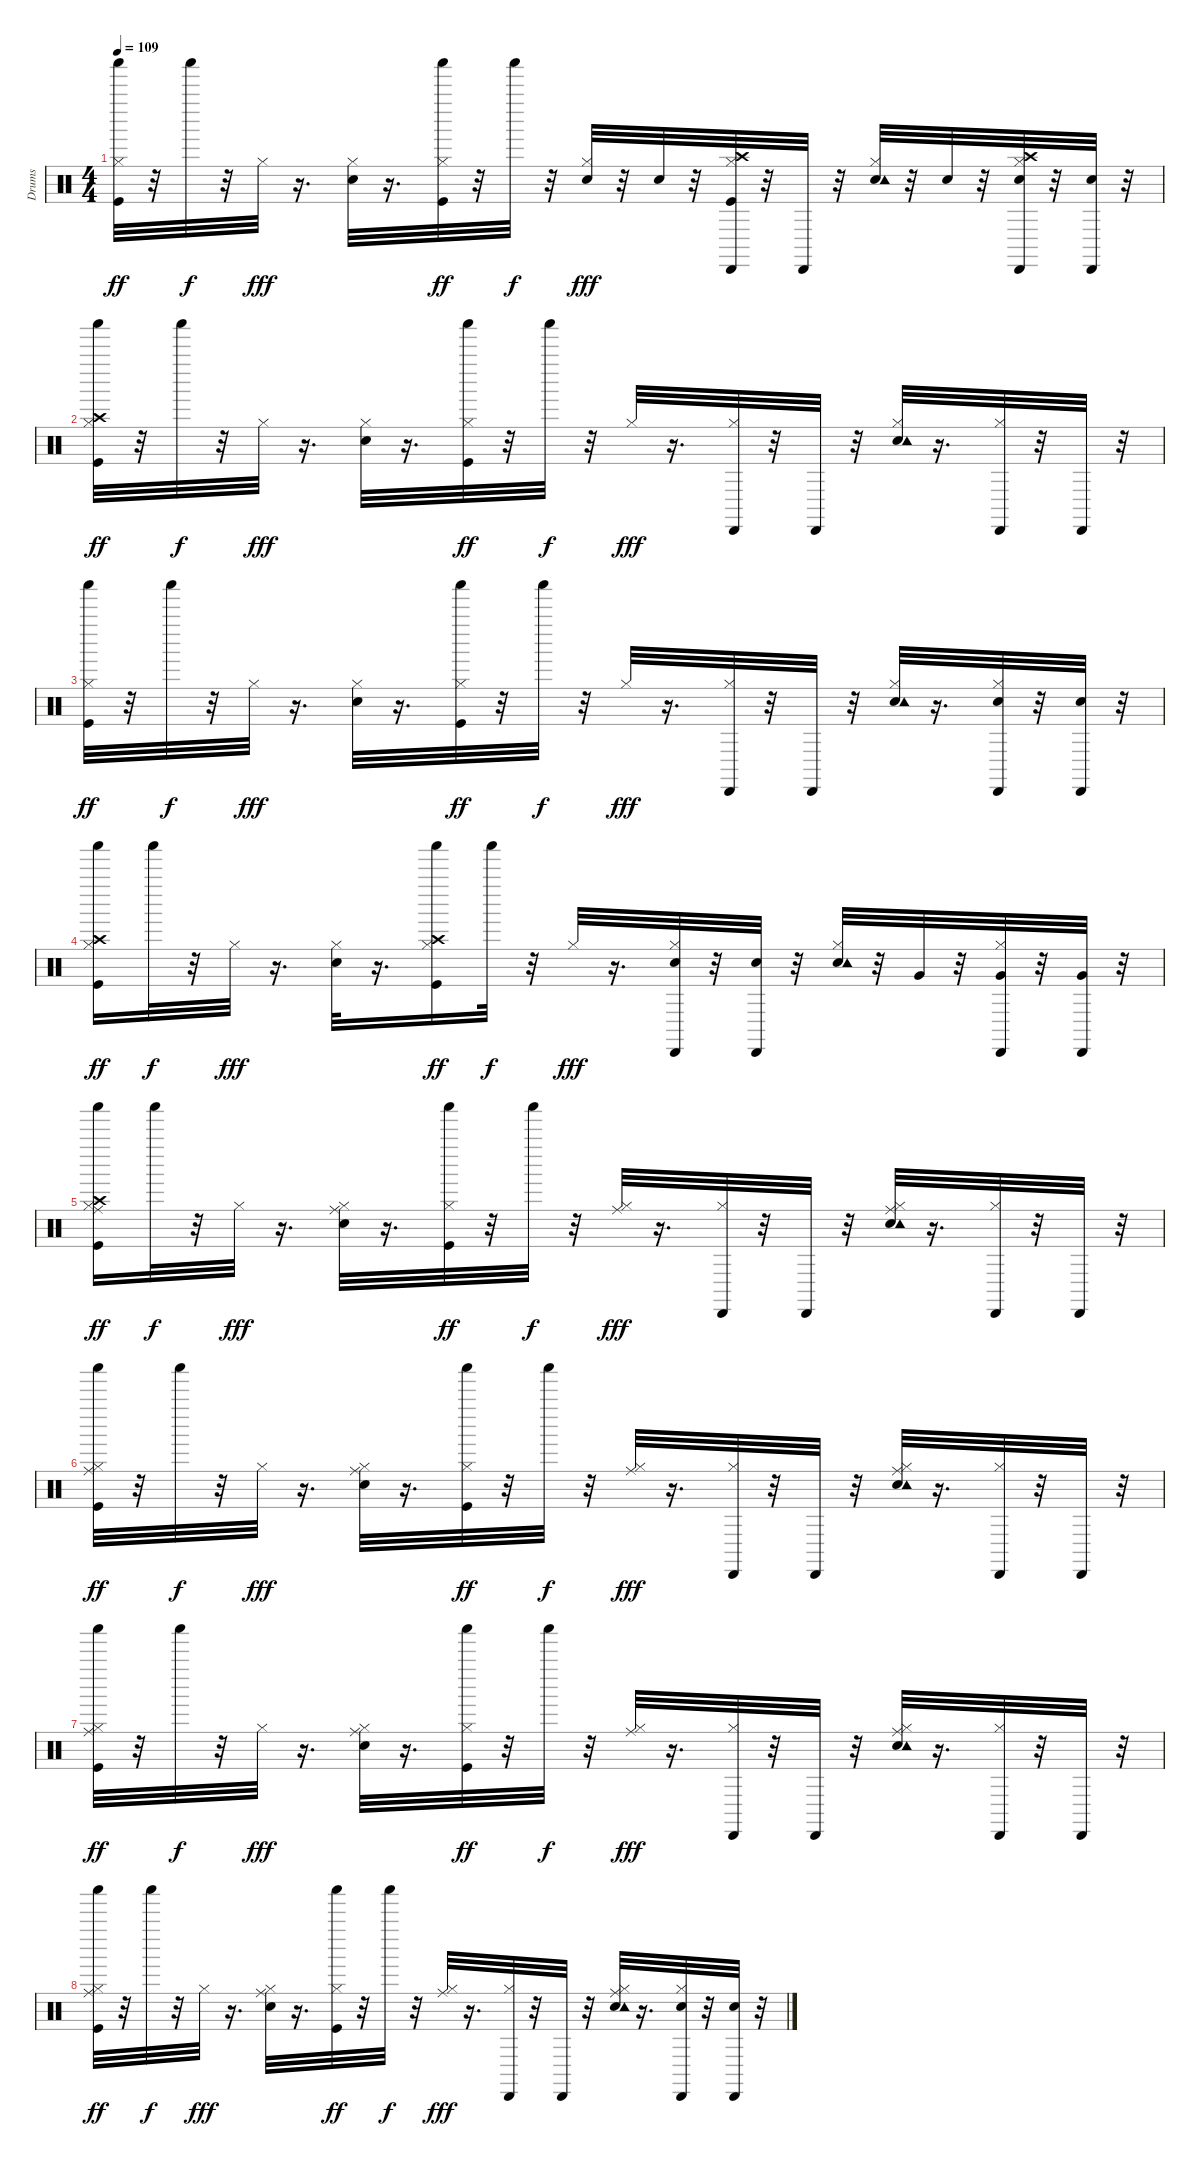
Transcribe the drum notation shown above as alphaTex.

\track ("Drums               " "Drums     ") {instrument percussion}
\staff {score}
\articulation defaults
\ts (4 4)
\tempo 109
\clef neutral
\ks c
("Kick (hit)" "Hi-Hat (closed)" "Shaker (hit)").32{dy ff} r.32 "Shaker (hit)".32{dy f} r.32 "Hi-Hat (closed)".32{dy fff} r.16{d} ("Electric Snare (hit)" "Hi-Hat (closed)").32 r.16{d} ("Kick (hit)" "Hi-Hat (closed)" "Shaker (hit)").32{dy ff} r.32 "Shaker (hit)".32{dy f} r.32 ("Electric Snare (hit)" "Hi-Hat (closed)").32{dy fff} r.32 "Electric Snare (hit)".32 r.32 ("Kick (hit)" "Hi-Hat (closed)" "Crash high (hit)" "Cabasa (hit)").32 r.32 "Cabasa (hit)".32 r.32 ("Electric Snare (hit)" "Hi-Hat (closed)" "Tambourine (hit)").32 r.32 "Electric Snare (hit)".32 r.32 ("Electric Snare (hit)" "Hi-Hat (closed)" "Crash high (hit)" "Cabasa (hit)").32 r.32 ("Electric Snare (hit)" "Cabasa (hit)").32 r.32 |
("Kick (hit)" "Hi-Hat (closed)" "Crash high (hit)" "Shaker (hit)").32{dy ff} r.32 "Shaker (hit)".32{dy f} r.32 "Hi-Hat (closed)".32{dy fff} r.16{d} ("Electric Snare (hit)" "Hi-Hat (closed)").32 r.16{d} ("Kick (hit)" "Hi-Hat (closed)" "Shaker (hit)").32{dy ff} r.32 "Shaker (hit)".32{dy f} r.32 "Hi-Hat (closed)".32{dy fff} r.16{d} ("Hi-Hat (closed)" "Cabasa (hit)").32 r.32 "Cabasa (hit)".32 r.32 ("Electric Snare (hit)" "Hi-Hat (closed)" "Tambourine (hit)").32 r.16{d} ("Hi-Hat (closed)" "Cabasa (hit)").32 r.32 "Cabasa (hit)".32 r.32 |
("Kick (hit)" "Hi-Hat (closed)" "Shaker (hit)").32{dy ff} r.32 "Shaker (hit)".32{dy f} r.32 "Hi-Hat (closed)".32{dy fff} r.16{d} ("Electric Snare (hit)" "Hi-Hat (closed)").32 r.16{d} ("Kick (hit)" "Hi-Hat (closed)" "Shaker (hit)").32{dy ff} r.32 "Shaker (hit)".32{dy f} r.32 "Hi-Hat (closed)".32{dy fff} r.16{d} ("Hi-Hat (closed)" "Cabasa (hit)").32 r.32 "Cabasa (hit)".32 r.32 ("Electric Snare (hit)" "Hi-Hat (closed)" "Tambourine (hit)").32 r.16{d} ("Electric Snare (hit)" "Hi-Hat (closed)" "Cabasa (hit)").32 r.32 ("Electric Snare (hit)" "Cabasa (hit)").32 r.32 |
("Kick (hit)" "Hi-Hat (closed)" "Crash high (hit)" "Shaker (hit)").16{dy ff} "Shaker (hit)".32{dy f} r.32 "Hi-Hat (closed)".32{dy fff} r.16{d} ("Electric Snare (hit)" "Hi-Hat (closed)").32 r.16{d} ("Kick (hit)" "Hi-Hat (closed)" "Crash high (hit)" "Shaker (hit)").16{dy ff} "Shaker (hit)".32{dy f} r.32 "Hi-Hat (closed)".32{dy fff} r.16{d} ("Electric Snare (hit)" "Hi-Hat (closed)" "Cabasa (hit)").32 r.32 ("Electric Snare (hit)" "Cabasa (hit)").32 r.32 ("Electric Snare (hit)" "Hi-Hat (closed)" "Tambourine (hit)").32 r.32 "Very Low Tom (hit)".32 r.32 ("Hi-Hat (closed)" "Very Low Tom (hit)" "Cabasa (hit)").32 r.32 ("Very Low Tom (hit)" "Cabasa (hit)").32 r.32 |
("Kick (hit)" "Hi-Hat (closed)" "Crash high (hit)" "Ride (middle)" "Shaker (hit)").16{dy ff} "Shaker (hit)".32{dy f} r.32 "Hi-Hat (closed)".32{dy fff} r.16{d} ("Electric Snare (hit)" "Hi-Hat (closed)" "Ride (middle)").32 r.16{d} ("Kick (hit)" "Hi-Hat (closed)" "Shaker (hit)").32{dy ff} r.32 "Shaker (hit)".32{dy f} r.32 ("Hi-Hat (closed)" "Ride (middle)").32{dy fff} r.16{d} ("Hi-Hat (closed)" "Cabasa (hit)").32 r.32 "Cabasa (hit)".32 r.32 ("Electric Snare (hit)" "Hi-Hat (closed)" "Ride (middle)" "Tambourine (hit)").32 r.16{d} ("Hi-Hat (closed)" "Cabasa (hit)").32 r.32 "Cabasa (hit)".32 r.32 |
("Kick (hit)" "Hi-Hat (closed)" "Ride (middle)" "Shaker (hit)").32{dy ff} r.32 "Shaker (hit)".32{dy f} r.32 "Hi-Hat (closed)".32{dy fff} r.16{d} ("Electric Snare (hit)" "Hi-Hat (closed)" "Ride (middle)").32 r.16{d} ("Kick (hit)" "Hi-Hat (closed)" "Shaker (hit)").32{dy ff} r.32 "Shaker (hit)".32{dy f} r.32 ("Hi-Hat (closed)" "Ride (middle)").32{dy fff} r.16{d} ("Hi-Hat (closed)" "Cabasa (hit)").32 r.32 "Cabasa (hit)".32 r.32 ("Electric Snare (hit)" "Hi-Hat (closed)" "Ride (middle)" "Tambourine (hit)").32 r.16{d} ("Hi-Hat (closed)" "Cabasa (hit)").32 r.32 "Cabasa (hit)".32 r.32 |
("Kick (hit)" "Hi-Hat (closed)" "Ride (middle)" "Shaker (hit)").32{dy ff} r.32 "Shaker (hit)".32{dy f} r.32 "Hi-Hat (closed)".32{dy fff} r.16{d} ("Electric Snare (hit)" "Hi-Hat (closed)" "Ride (middle)").32 r.16{d} ("Kick (hit)" "Hi-Hat (closed)" "Shaker (hit)").32{dy ff} r.32 "Shaker (hit)".32{dy f} r.32 ("Hi-Hat (closed)" "Ride (middle)").32{dy fff} r.16{d} ("Hi-Hat (closed)" "Cabasa (hit)").32 r.32 "Cabasa (hit)".32 r.32 ("Electric Snare (hit)" "Hi-Hat (closed)" "Ride (middle)" "Tambourine (hit)").32 r.16{d} ("Hi-Hat (closed)" "Cabasa (hit)").32 r.32 "Cabasa (hit)".32 r.32 |
("Kick (hit)" "Hi-Hat (closed)" "Ride (middle)" "Shaker (hit)").32{dy ff} r.32 "Shaker (hit)".32{dy f} r.32 "Hi-Hat (closed)".32{dy fff} r.16{d} ("Electric Snare (hit)" "Hi-Hat (closed)" "Ride (middle)").32 r.16{d} ("Kick (hit)" "Hi-Hat (closed)" "Shaker (hit)").32{dy ff} r.32 "Shaker (hit)".32{dy f} r.32 ("Hi-Hat (closed)" "Ride (middle)").32{dy fff} r.16{d} ("Hi-Hat (closed)" "Cabasa (hit)").32 r.32 "Cabasa (hit)".32 r.32 ("Electric Snare (hit)" "Hi-Hat (closed)" "Ride (middle)" "Tambourine (hit)").32 r.16{d} ("Electric Snare (hit)" "Hi-Hat (closed)" "Cabasa (hit)").32 r.32 ("Electric Snare (hit)" "Cabasa (hit)").32 r.32
